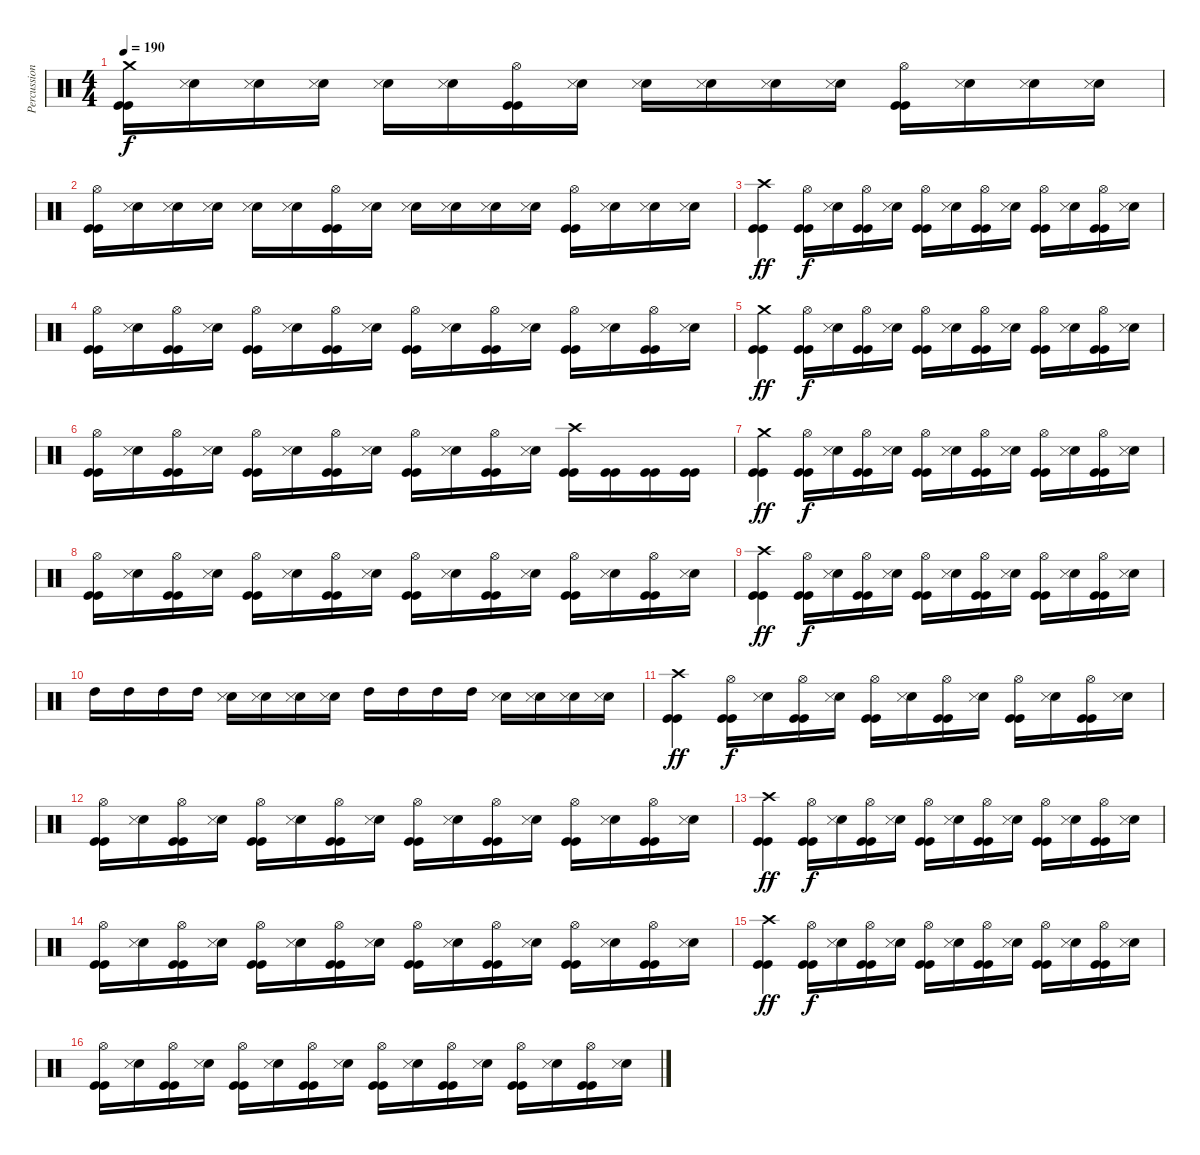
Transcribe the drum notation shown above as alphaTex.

\track ("Percussion" "Percussion") {instrument percussion}
\staff {score}
\articulation defaults
\ts (4 4)
\tempo 190
\clef neutral
\ks c
("Crash medium (hit)" "Kick (hit)" "Kick (hit)").16{dy f} ("Snare (hit) 2" "Snare (side stick) 3").16 ("Snare (hit) 2" "Snare (side stick) 3").16 ("Snare (hit) 2" "Snare (side stick) 3").16 ("Snare (hit) 2" "Snare (side stick) 3").16 ("Snare (hit) 2" "Snare (side stick) 3").16 ("Hi-Hat (open)" "Kick (hit)" "Kick (hit)").16 ("Snare (hit) 2" "Snare (side stick) 3").16 ("Snare (hit) 2" "Snare (side stick) 3").16 ("Snare (hit) 2" "Snare (side stick) 3").16 ("Snare (hit) 2" "Snare (side stick) 3").16 ("Snare (hit) 2" "Snare (side stick) 3").16 ("Hi-Hat (open)" "Kick (hit)" "Kick (hit)").16 ("Snare (hit) 2" "Snare (side stick) 3").16 ("Snare (hit) 2" "Snare (side stick) 3").16 ("Snare (hit) 2" "Snare (side stick) 3").16 |
("Hi-Hat (open)" "Kick (hit)" "Kick (hit)").16 ("Snare (hit) 2" "Snare (side stick) 3").16 ("Snare (hit) 2" "Snare (side stick) 3").16 ("Snare (hit) 2" "Snare (side stick) 3").16 ("Snare (hit) 2" "Snare (side stick) 3").16 ("Snare (hit) 2" "Snare (side stick) 3").16 ("Hi-Hat (open)" "Kick (hit)" "Kick (hit)").16 ("Snare (hit) 2" "Snare (side stick) 3").16 ("Snare (hit) 2" "Snare (side stick) 3").16 ("Snare (hit) 2" "Snare (side stick) 3").16 ("Snare (hit) 2" "Snare (side stick) 3").16 ("Snare (hit) 2" "Snare (side stick) 3").16 ("Hi-Hat (open)" "Kick (hit)" "Kick (hit)").16 ("Snare (hit) 2" "Snare (side stick) 3").16 ("Snare (hit) 2" "Snare (side stick) 3").16 ("Snare (hit) 2" "Snare (side stick) 3").16 |
("Crash high (hit)" "Kick (hit)" "Kick (hit)").4{dy ff} ("Hi-Hat (open)" "Kick (hit)" "Kick (hit)").16{dy f} ("Snare (hit) 2" "Snare (side stick) 3").16 ("Hi-Hat (open)" "Kick (hit)" "Kick (hit)").16 ("Snare (hit) 2" "Snare (side stick) 3").16 ("Hi-Hat (open)" "Kick (hit)" "Kick (hit)").16 ("Snare (hit) 2" "Snare (side stick) 3").16 ("Hi-Hat (open)" "Kick (hit)" "Kick (hit)").16 ("Snare (hit) 2" "Snare (side stick) 3").16 ("Hi-Hat (open)" "Kick (hit)" "Kick (hit)").16 ("Snare (hit) 2" "Snare (side stick) 3").16 ("Hi-Hat (open)" "Kick (hit)" "Kick (hit)").16 ("Snare (hit) 2" "Snare (side stick) 3").16 |
("Hi-Hat (open)" "Kick (hit)" "Kick (hit)").16 ("Snare (hit) 2" "Snare (side stick) 3").16 ("Hi-Hat (open)" "Kick (hit)" "Kick (hit)").16 ("Snare (hit) 2" "Snare (side stick) 3").16 ("Hi-Hat (open)" "Kick (hit)" "Kick (hit)").16 ("Snare (hit) 2" "Snare (side stick) 3").16 ("Hi-Hat (open)" "Kick (hit)" "Kick (hit)").16 ("Snare (hit) 2" "Snare (side stick) 3").16 ("Hi-Hat (open)" "Kick (hit)" "Kick (hit)").16 ("Snare (hit) 2" "Snare (side stick) 3").16 ("Hi-Hat (open)" "Kick (hit)" "Kick (hit)").16 ("Snare (hit) 2" "Snare (side stick) 3").16 ("Hi-Hat (open)" "Kick (hit)" "Kick (hit)").16 ("Snare (hit) 2" "Snare (side stick) 3").16 ("Hi-Hat (open)" "Kick (hit)" "Kick (hit)").16 ("Snare (hit) 2" "Snare (side stick) 3").16 |
("Crash medium (hit)" "Kick (hit)" "Kick (hit)").4{dy ff} ("Hi-Hat (open)" "Kick (hit)" "Kick (hit)").16{dy f} ("Snare (hit) 2" "Snare (side stick) 3").16 ("Hi-Hat (open)" "Kick (hit)" "Kick (hit)").16 ("Snare (hit) 2" "Snare (side stick) 3").16 ("Hi-Hat (open)" "Kick (hit)" "Kick (hit)").16 ("Snare (hit) 2" "Snare (side stick) 3").16 ("Hi-Hat (open)" "Kick (hit)" "Kick (hit)").16 ("Snare (hit) 2" "Snare (side stick) 3").16 ("Hi-Hat (open)" "Kick (hit)" "Kick (hit)").16 ("Snare (hit) 2" "Snare (side stick) 3").16 ("Hi-Hat (open)" "Kick (hit)" "Kick (hit)").16 ("Snare (hit) 2" "Snare (side stick) 3").16 |
("Hi-Hat (open)" "Kick (hit)" "Kick (hit)").16 ("Snare (hit) 2" "Snare (side stick) 3").16 ("Hi-Hat (open)" "Kick (hit)" "Kick (hit)").16 ("Snare (hit) 2" "Snare (side stick) 3").16 ("Hi-Hat (open)" "Kick (hit)" "Kick (hit)").16 ("Snare (hit) 2" "Snare (side stick) 3").16 ("Hi-Hat (open)" "Kick (hit)" "Kick (hit)").16 ("Snare (hit) 2" "Snare (side stick) 3").16 ("Hi-Hat (open)" "Kick (hit)" "Kick (hit)").16 ("Snare (hit) 2" "Snare (side stick) 3").16 ("Hi-Hat (open)" "Kick (hit)" "Kick (hit)").16 ("Snare (hit) 2" "Snare (side stick) 3").16 ("Crash high (hit)" "Kick (hit)" "Kick (hit)").16 ("Kick (hit)" "Kick (hit)").16 ("Kick (hit)" "Kick (hit)").16 ("Kick (hit)" "Kick (hit)").16 |
("Crash medium (hit)" "Kick (hit)" "Kick (hit)").4{dy ff} ("Hi-Hat (open)" "Kick (hit)" "Kick (hit)").16{dy f} ("Snare (hit) 2" "Snare (side stick) 3").16 ("Hi-Hat (open)" "Kick (hit)" "Kick (hit)").16 ("Snare (hit) 2" "Snare (side stick) 3").16 ("Hi-Hat (open)" "Kick (hit)" "Kick (hit)").16 ("Snare (hit) 2" "Snare (side stick) 3").16 ("Hi-Hat (open)" "Kick (hit)" "Kick (hit)").16 ("Snare (hit) 2" "Snare (side stick) 3").16 ("Hi-Hat (open)" "Kick (hit)" "Kick (hit)").16 ("Snare (hit) 2" "Snare (side stick) 3").16 ("Hi-Hat (open)" "Kick (hit)" "Kick (hit)").16 ("Snare (hit) 2" "Snare (side stick) 3").16 |
("Hi-Hat (open)" "Kick (hit)" "Kick (hit)").16 ("Snare (hit) 2" "Snare (side stick) 3").16 ("Hi-Hat (open)" "Kick (hit)" "Kick (hit)").16 ("Snare (hit) 2" "Snare (side stick) 3").16 ("Hi-Hat (open)" "Kick (hit)" "Kick (hit)").16 ("Snare (hit) 2" "Snare (side stick) 3").16 ("Hi-Hat (open)" "Kick (hit)" "Kick (hit)").16 ("Snare (hit) 2" "Snare (side stick) 3").16 ("Hi-Hat (open)" "Kick (hit)" "Kick (hit)").16 ("Snare (hit) 2" "Snare (side stick) 3").16 ("Hi-Hat (open)" "Kick (hit)" "Kick (hit)").16 ("Snare (hit) 2" "Snare (side stick) 3").16 ("Hi-Hat (open)" "Kick (hit)" "Kick (hit)").16 ("Snare (hit) 2" "Snare (side stick) 3").16 ("Hi-Hat (open)" "Kick (hit)" "Kick (hit)").16 ("Snare (hit) 2" "Snare (side stick) 3").16 |
("Crash high (hit)" "Kick (hit)" "Kick (hit)").4{dy ff} ("Hi-Hat (open)" "Kick (hit)" "Kick (hit)").16{dy f} ("Snare (hit) 2" "Snare (side stick) 3").16 ("Hi-Hat (open)" "Kick (hit)" "Kick (hit)").16 ("Snare (hit) 2" "Snare (side stick) 3").16 ("Hi-Hat (open)" "Kick (hit)" "Kick (hit)").16 ("Snare (hit) 2" "Snare (side stick) 3").16 ("Hi-Hat (open)" "Kick (hit)" "Kick (hit)").16 ("Snare (hit) 2" "Snare (side stick) 3").16 ("Hi-Hat (open)" "Kick (hit)" "Kick (hit)").16 ("Snare (hit) 2" "Snare (side stick) 3").16 ("Hi-Hat (open)" "Kick (hit)" "Kick (hit)").16 ("Snare (hit) 2" "Snare (side stick) 3").16 |
"High Tom (hit)".16 "High Tom (hit)".16 "High Tom (hit)".16 "High Tom (hit)".16 ("Snare (hit) 2" "Snare (side stick) 3").16 ("Snare (hit) 2" "Snare (side stick) 3").16 ("Snare (hit) 2" "Snare (side stick) 3").16 ("Snare (hit) 2" "Snare (side stick) 3").16 "High Tom (hit)".16 "High Tom (hit)".16 "High Tom (hit)".16 "High Tom (hit)".16 ("Snare (hit) 2" "Snare (side stick) 3").16 ("Snare (hit) 2" "Snare (side stick) 3").16 ("Snare (hit) 2" "Snare (side stick) 3").16 ("Snare (hit) 2" "Snare (side stick) 3").16 |
("Crash high (hit)" "Kick (hit)" "Kick (hit)").4{dy ff} ("Hi-Hat (open)" "Kick (hit)" "Kick (hit)").16{dy f} ("Snare (hit) 2" "Snare (side stick) 3").16 ("Hi-Hat (open)" "Kick (hit)" "Kick (hit)").16 ("Snare (hit) 2" "Snare (side stick) 3").16 ("Hi-Hat (open)" "Kick (hit)" "Kick (hit)").16 ("Snare (hit) 2" "Snare (side stick) 3").16 ("Hi-Hat (open)" "Kick (hit)" "Kick (hit)").16 ("Snare (hit) 2" "Snare (side stick) 3").16 ("Hi-Hat (open)" "Kick (hit)" "Kick (hit)").16 ("Snare (hit) 2" "Snare (side stick) 3").16 ("Hi-Hat (open)" "Kick (hit)" "Kick (hit)").16 ("Snare (hit) 2" "Snare (side stick) 3").16 |
("Hi-Hat (open)" "Kick (hit)" "Kick (hit)").16 ("Snare (hit) 2" "Snare (side stick) 3").16 ("Hi-Hat (open)" "Kick (hit)" "Kick (hit)").16 ("Snare (hit) 2" "Snare (side stick) 3").16 ("Hi-Hat (open)" "Kick (hit)" "Kick (hit)").16 ("Snare (hit) 2" "Snare (side stick) 3").16 ("Hi-Hat (open)" "Kick (hit)" "Kick (hit)").16 ("Snare (hit) 2" "Snare (side stick) 3").16 ("Hi-Hat (open)" "Kick (hit)" "Kick (hit)").16 ("Snare (hit) 2" "Snare (side stick) 3").16 ("Hi-Hat (open)" "Kick (hit)" "Kick (hit)").16 ("Snare (hit) 2" "Snare (side stick) 3").16 ("Hi-Hat (open)" "Kick (hit)" "Kick (hit)").16 ("Snare (hit) 2" "Snare (side stick) 3").16 ("Hi-Hat (open)" "Kick (hit)" "Kick (hit)").16 ("Snare (hit) 2" "Snare (side stick) 3").16 |
("Crash high (hit)" "Kick (hit)" "Kick (hit)").4{dy ff} ("Hi-Hat (open)" "Kick (hit)" "Kick (hit)").16{dy f} ("Snare (hit) 2" "Snare (side stick) 3").16 ("Hi-Hat (open)" "Kick (hit)" "Kick (hit)").16 ("Snare (hit) 2" "Snare (side stick) 3").16 ("Hi-Hat (open)" "Kick (hit)" "Kick (hit)").16 ("Snare (hit) 2" "Snare (side stick) 3").16 ("Hi-Hat (open)" "Kick (hit)" "Kick (hit)").16 ("Snare (hit) 2" "Snare (side stick) 3").16 ("Hi-Hat (open)" "Kick (hit)" "Kick (hit)").16 ("Snare (hit) 2" "Snare (side stick) 3").16 ("Hi-Hat (open)" "Kick (hit)" "Kick (hit)").16 ("Snare (hit) 2" "Snare (side stick) 3").16 |
("Hi-Hat (open)" "Kick (hit)" "Kick (hit)").16 ("Snare (hit) 2" "Snare (side stick) 3").16 ("Hi-Hat (open)" "Kick (hit)" "Kick (hit)").16 ("Snare (hit) 2" "Snare (side stick) 3").16 ("Hi-Hat (open)" "Kick (hit)" "Kick (hit)").16 ("Snare (hit) 2" "Snare (side stick) 3").16 ("Hi-Hat (open)" "Kick (hit)" "Kick (hit)").16 ("Snare (hit) 2" "Snare (side stick) 3").16 ("Hi-Hat (open)" "Kick (hit)" "Kick (hit)").16 ("Snare (hit) 2" "Snare (side stick) 3").16 ("Hi-Hat (open)" "Kick (hit)" "Kick (hit)").16 ("Snare (hit) 2" "Snare (side stick) 3").16 ("Hi-Hat (open)" "Kick (hit)" "Kick (hit)").16 ("Snare (hit) 2" "Snare (side stick) 3").16 ("Hi-Hat (open)" "Kick (hit)" "Kick (hit)").16 ("Snare (hit) 2" "Snare (side stick) 3").16 |
("Crash high (hit)" "Kick (hit)" "Kick (hit)").4{dy ff} ("Hi-Hat (open)" "Kick (hit)" "Kick (hit)").16{dy f} ("Snare (hit) 2" "Snare (side stick) 3").16 ("Hi-Hat (open)" "Kick (hit)" "Kick (hit)").16 ("Snare (hit) 2" "Snare (side stick) 3").16 ("Hi-Hat (open)" "Kick (hit)" "Kick (hit)").16 ("Snare (hit) 2" "Snare (side stick) 3").16 ("Hi-Hat (open)" "Kick (hit)" "Kick (hit)").16 ("Snare (hit) 2" "Snare (side stick) 3").16 ("Hi-Hat (open)" "Kick (hit)" "Kick (hit)").16 ("Snare (hit) 2" "Snare (side stick) 3").16 ("Hi-Hat (open)" "Kick (hit)" "Kick (hit)").16 ("Snare (hit) 2" "Snare (side stick) 3").16 |
("Hi-Hat (open)" "Kick (hit)" "Kick (hit)").16 ("Snare (hit) 2" "Snare (side stick) 3").16 ("Hi-Hat (open)" "Kick (hit)" "Kick (hit)").16 ("Snare (hit) 2" "Snare (side stick) 3").16 ("Hi-Hat (open)" "Kick (hit)" "Kick (hit)").16 ("Snare (hit) 2" "Snare (side stick) 3").16 ("Hi-Hat (open)" "Kick (hit)" "Kick (hit)").16 ("Snare (hit) 2" "Snare (side stick) 3").16 ("Hi-Hat (open)" "Kick (hit)" "Kick (hit)").16 ("Snare (hit) 2" "Snare (side stick) 3").16 ("Hi-Hat (open)" "Kick (hit)" "Kick (hit)").16 ("Snare (hit) 2" "Snare (side stick) 3").16 ("Hi-Hat (open)" "Kick (hit)" "Kick (hit)").16 ("Snare (hit) 2" "Snare (side stick) 3").16 ("Hi-Hat (open)" "Kick (hit)" "Kick (hit)").16 ("Snare (hit) 2" "Snare (side stick) 3").16
